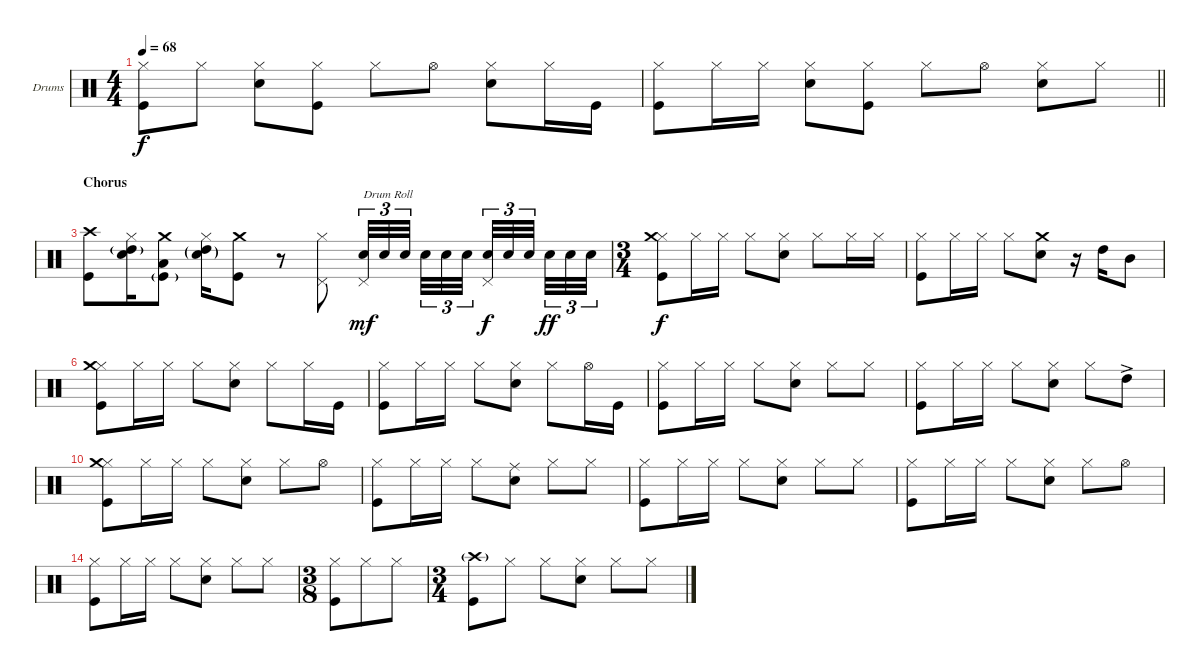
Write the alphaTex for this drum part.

\bracketExtendMode nobrackets
\firstSystemTrackNameOrientation horizontal
\otherSystemsTrackNameOrientation horizontal
\defaultBarNumberDisplay FirstOfSystem
\track ("Drumkit" "Drums") {instrument percussion}
\staff {score}
\articulation defaults
\ts (4 4)
\tempo 68
\clef neutral
\ks c
("Hi-Hat (closed)" "Kick (hit)").8{dy f} "Hi-Hat (closed)".8 ("Hi-Hat (closed)" "Snare (hit) 2").8 ("Hi-Hat (closed)" "Kick (hit)").8 "Hi-Hat (closed)".8 "Hi-Hat (open)".8 ("Hi-Hat (closed)" "Snare (hit) 2").8 "Hi-Hat (closed)".16 "Kick (hit)".16 |
\barLineRight lightlight
("Hi-Hat (closed)" "Kick (hit)").8 "Hi-Hat (closed)".16 "Hi-Hat (closed)".16 ("Hi-Hat (closed)" "Snare (hit) 2").8 ("Hi-Hat (closed)" "Kick (hit)").8 "Hi-Hat (closed)".8 "Hi-Hat (open)".8 ("Hi-Hat (closed)" "Snare (hit) 2").8 "Hi-Hat (closed)".8 |
\section ("" "Chorus")
("Crash high (hit)" "Kick (hit)").8 ("Hi-Hat (closed)" "Snare (hit) 2" "High Tom (hit)"{g}).16 ("Crash medium (hit)" "Low Tom (hit)" "Kick (hit)"{g}).8 ("Snare (hit) 2"{g} "Hi-Hat (closed)" "High Tom (hit)"{g}).16 ("Crash medium (hit)" "Kick (hit)").8 r.8 ("Pedal Hi-Hat (hit)" "Hi-Hat (closed)").8 ("Pedal Hi-Hat (hit)" "Snare (hit) 2").32{tu (3 2) txt "Drum Roll" dy mf} "Snare (hit) 2".32{tu (3 2)} "Snare (hit) 2".32{tu (3 2)} "Snare (hit) 2".32{tu (3 2)} "Snare (hit) 2".32{tu (3 2)} "Snare (hit) 2".32{tu (3 2)} ("Pedal Hi-Hat (hit)" "Snare (hit) 2").32{tu (3 2) dy f} "Snare (hit) 2".32{tu (3 2)} "Snare (hit) 2".32{tu (3 2)} "Snare (hit) 2".32{tu (3 2) dy ff} "Snare (hit) 2".32{tu (3 2)} "Snare (hit) 2".32{tu (3 2)} |
\ts (3 4)
("Hi-Hat (closed)" "Kick (hit)" "Crash medium (hit)").8{dy f} "Hi-Hat (closed)".16 "Hi-Hat (closed)".16 "Hi-Hat (closed)".8 ("Hi-Hat (closed)" "Snare (hit) 2").8 "Hi-Hat (closed)".8 "Hi-Hat (closed)".16 "Hi-Hat (closed)".16 |
("Hi-Hat (closed)" "Kick (hit)").8 "Hi-Hat (closed)".16 "Hi-Hat (closed)".16 "Hi-Hat (closed)".8 ("Crash medium (hit)" "Snare (hit) 2").8 r.16 "High Tom (hit)".16 "Mid Tom (hit)".8 |
("Hi-Hat (closed)" "Kick (hit)" "Crash medium (hit)").8 "Hi-Hat (closed)".16 "Hi-Hat (closed)".16 "Hi-Hat (closed)".8 ("Hi-Hat (closed)" "Snare (hit) 2").8 "Hi-Hat (closed)".8 "Hi-Hat (closed)".16 "Kick (hit)".16 |
("Hi-Hat (closed)" "Kick (hit)").8 "Hi-Hat (closed)".16 "Hi-Hat (closed)".16 "Hi-Hat (closed)".8 ("Hi-Hat (closed)" "Snare (hit) 2").8 "Hi-Hat (closed)".8 "Hi-Hat (open)".16 "Kick (hit)".16 |
("Hi-Hat (closed)" "Kick (hit)").8 "Hi-Hat (closed)".16 "Hi-Hat (closed)".16 "Hi-Hat (closed)".8 ("Hi-Hat (closed)" "Snare (hit) 2").8 "Hi-Hat (closed)".8 "Hi-Hat (closed)".8 |
("Hi-Hat (closed)" "Kick (hit)").8 "Hi-Hat (closed)".16 "Hi-Hat (closed)".16 "Hi-Hat (closed)".8 ("Hi-Hat (closed)" "Snare (hit) 2").8 "Hi-Hat (closed)".8 "High Tom (hit)"{ac}.8 |
("Hi-Hat (closed)" "Kick (hit)" "Crash medium (hit)").8 "Hi-Hat (closed)".16 "Hi-Hat (closed)".16 "Hi-Hat (closed)".8 ("Hi-Hat (closed)" "Snare (hit) 2").8 "Hi-Hat (closed)".8 "Hi-Hat (open)".8 |
("Hi-Hat (closed)" "Kick (hit)").8 "Hi-Hat (closed)".16 "Hi-Hat (closed)".16 "Hi-Hat (closed)".8 ("Ride (middle)" "Snare (hit) 2").8 "Hi-Hat (closed)".8 "Hi-Hat (closed)".8 |
("Hi-Hat (closed)" "Kick (hit)").8 "Hi-Hat (closed)".16 "Hi-Hat (closed)".16 "Hi-Hat (closed)".8 ("Hi-Hat (closed)" "Snare (hit) 2").8 "Hi-Hat (closed)".8 "Hi-Hat (closed)".8 |
("Hi-Hat (closed)" "Kick (hit)").8 "Hi-Hat (closed)".16 "Hi-Hat (closed)".16 "Hi-Hat (closed)".8 ("Hi-Hat (closed)" "Snare (hit) 2").8 "Hi-Hat (closed)".8 "Hi-Hat (open)".8 |
("Hi-Hat (closed)" "Kick (hit)").8 "Hi-Hat (closed)".16 "Hi-Hat (closed)".16 "Hi-Hat (closed)".8 ("Hi-Hat (closed)" "Snare (hit) 2").8 "Hi-Hat (closed)".8 "Hi-Hat (closed)".8 |
\ts (3 8)
("Hi-Hat (closed)" "Kick (hit)").8 "Hi-Hat (closed)".8 "Hi-Hat (closed)".8 |
\ts (3 4)
("Crash high (hit)"{g} "Kick (hit)").8 "Hi-Hat (closed)".8 "Hi-Hat (closed)".8 ("Hi-Hat (closed)" "Snare (hit) 2").8 "Hi-Hat (closed)".8 "Hi-Hat (closed)".8
